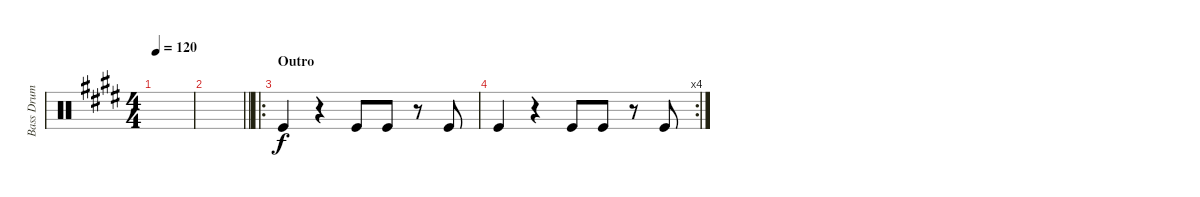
\track ("Bass Drum" "Bass Drum") {instrument percussion}
\staff {score}
\articulation defaults
\ts (4 4)
\tempo 120
\clef neutral
\ks e
|
\barLineRight lightlight
|
\ro
\section ("" "Outro")
"Kick (hit)".4 r.4 "Kick (hit)".8 "Kick (hit)".8 r.8 "Kick (hit)".8 |
\rc 4 "Kick (hit)".4
r.4 "Kick (hit)".8 "Kick (hit)".8 r.8 "Kick (hit)".8
